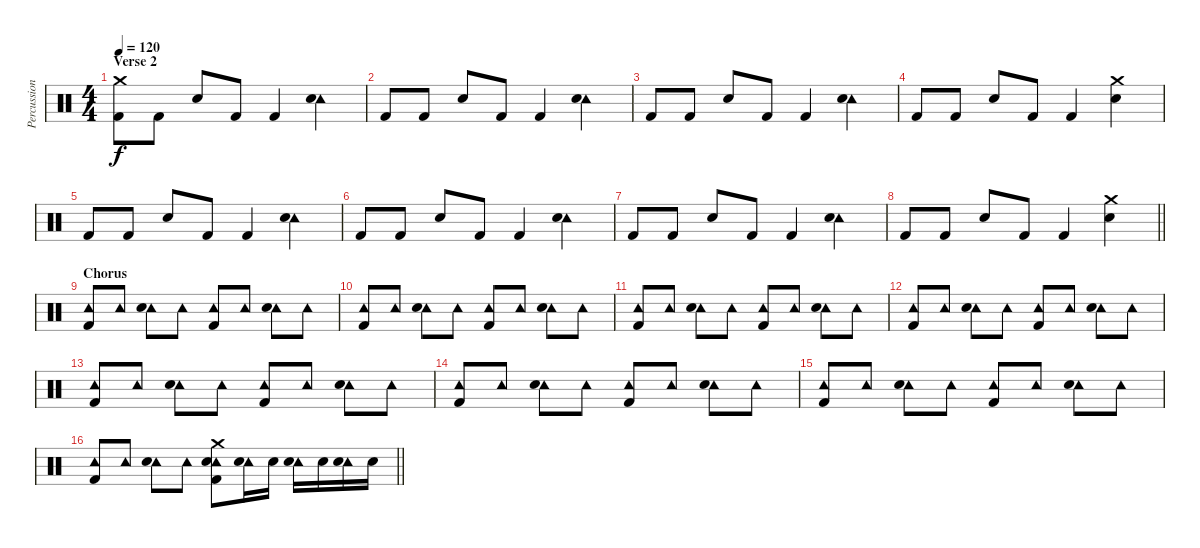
\track ("Percussion" "Percussion") {instrument percussion}
\staff {score}
\articulation defaults
\ts (4 4)
\section ("" "Verse 2")
\tempo 120
\clef neutral
\ks c
("Crash medium (hit)" "Kick (hit) 2").8{dy f} "Kick (hit) 2".8 "Snare (hit) 2".8 "Kick (hit) 2".8 "Kick (hit) 2".4 ("Tambourine (hit)" "Snare (hit) 2").4 |
"Kick (hit) 2".8 "Kick (hit) 2".8 "Snare (hit) 2".8 "Kick (hit) 2".8 "Kick (hit) 2".4 ("Tambourine (hit)" "Snare (hit) 2").4 |
"Kick (hit) 2".8 "Kick (hit) 2".8 "Snare (hit) 2".8 "Kick (hit) 2".8 "Kick (hit) 2".4 ("Tambourine (hit)" "Snare (hit) 2").4 |
"Kick (hit) 2".8 "Kick (hit) 2".8 "Snare (hit) 2".8 "Kick (hit) 2".8 "Kick (hit) 2".4 ("Crash medium (hit)" "Snare (hit) 2").4 |
"Kick (hit) 2".8 "Kick (hit) 2".8 "Snare (hit) 2".8 "Kick (hit) 2".8 "Kick (hit) 2".4 ("Tambourine (hit)" "Snare (hit) 2").4 |
"Kick (hit) 2".8 "Kick (hit) 2".8 "Snare (hit) 2".8 "Kick (hit) 2".8 "Kick (hit) 2".4 ("Tambourine (hit)" "Snare (hit) 2").4 |
"Kick (hit) 2".8 "Kick (hit) 2".8 "Snare (hit) 2".8 "Kick (hit) 2".8 "Kick (hit) 2".4 ("Tambourine (hit)" "Snare (hit) 2").4 |
\barLineRight lightlight "Kick (hit) 2".8 "Kick (hit) 2".8 "Snare (hit) 2".8 "Kick (hit) 2".8 "Kick (hit) 2".4
("Crash medium (hit)" "Snare (hit) 2").4 |
\section ("" "Chorus")
("Tambourine (hit)" "Kick (hit) 2").8 "Tambourine (hit)".8 ("Tambourine (hit)" "Snare (hit) 2").8 "Tambourine (hit)".8 ("Tambourine (hit)" "Kick (hit) 2").8 "Tambourine (hit)".8 ("Tambourine (hit)" "Snare (hit) 2").8 "Tambourine (hit)".8 |
("Tambourine (hit)" "Kick (hit) 2").8 "Tambourine (hit)".8 ("Tambourine (hit)" "Snare (hit) 2").8 "Tambourine (hit)".8 ("Tambourine (hit)" "Kick (hit) 2").8 "Tambourine (hit)".8 ("Tambourine (hit)" "Snare (hit) 2").8 "Tambourine (hit)".8 |
("Tambourine (hit)" "Kick (hit) 2").8 "Tambourine (hit)".8 ("Tambourine (hit)" "Snare (hit) 2").8 "Tambourine (hit)".8 ("Tambourine (hit)" "Kick (hit) 2").8 "Tambourine (hit)".8 ("Tambourine (hit)" "Snare (hit) 2").8 "Tambourine (hit)".8 |
("Tambourine (hit)" "Kick (hit) 2").8 "Tambourine (hit)".8 ("Tambourine (hit)" "Snare (hit) 2").8 "Tambourine (hit)".8 ("Tambourine (hit)" "Kick (hit) 2").8 "Tambourine (hit)".8 ("Tambourine (hit)" "Snare (hit) 2").8 "Tambourine (hit)".8 |
("Tambourine (hit)" "Kick (hit) 2").8 "Tambourine (hit)".8 ("Tambourine (hit)" "Snare (hit) 2").8 "Tambourine (hit)".8 ("Tambourine (hit)" "Kick (hit) 2").8 "Tambourine (hit)".8 ("Tambourine (hit)" "Snare (hit) 2").8 "Tambourine (hit)".8 |
("Tambourine (hit)" "Kick (hit) 2").8 "Tambourine (hit)".8 ("Tambourine (hit)" "Snare (hit) 2").8 "Tambourine (hit)".8 ("Tambourine (hit)" "Kick (hit) 2").8 "Tambourine (hit)".8 ("Tambourine (hit)" "Snare (hit) 2").8 "Tambourine (hit)".8 |
("Tambourine (hit)" "Kick (hit) 2").8 "Tambourine (hit)".8 ("Tambourine (hit)" "Snare (hit) 2").8 "Tambourine (hit)".8 ("Tambourine (hit)" "Kick (hit) 2").8 "Tambourine (hit)".8 ("Tambourine (hit)" "Snare (hit) 2").8 "Tambourine (hit)".8 |
\barLineRight lightlight
("Tambourine (hit)" "Kick (hit) 2").8 "Tambourine (hit)".8 ("Tambourine (hit)" "Snare (hit) 2").8 "Tambourine (hit)".8 ("Crash medium (hit)" "Tambourine (hit)" "Snare (hit) 2" "Kick (hit) 2").8 ("Tambourine (hit)" "Snare (hit) 2").16 "Snare (hit) 2".16 ("Tambourine (hit)" "Snare (hit) 2").16 "Snare (hit) 2".16 ("Tambourine (hit)" "Snare (hit) 2").16 "Snare (hit) 2".16
